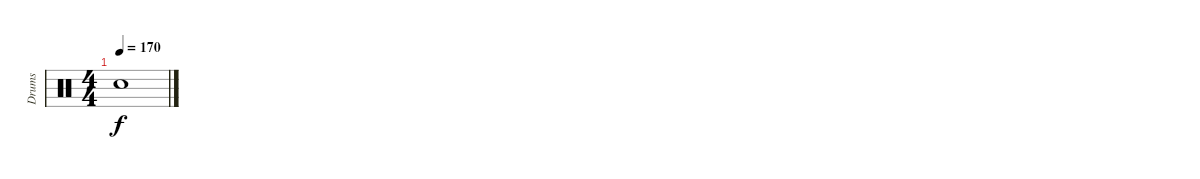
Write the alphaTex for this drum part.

\track ("Drums" "Drums") {instrument percussion}
\staff {score}
\articulation defaults
\ts (4 4)
\tempo 170
\clef neutral
\ks c "Snare (hit)"{t}.1{dy f}
